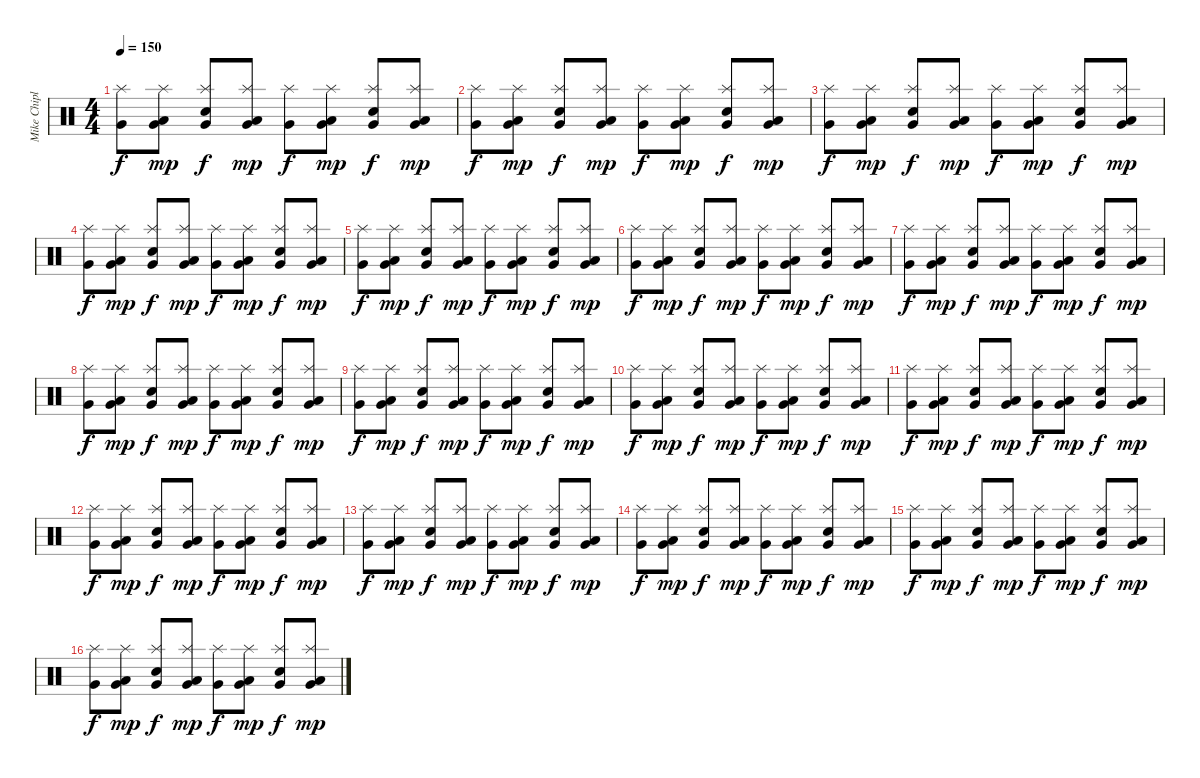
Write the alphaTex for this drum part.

\track ("Mike Chiplin" "Mike Chipl") {instrument percussion}
\staff {score}
\articulation defaults
\ts (4 4)
\tempo 150
\clef neutral
\ks c
("Very Low Tom (hit)" "Splash (hit)").8{dy f} ("Low Floor Tom (hit)" "Very Low Tom (hit)" "Splash (hit)").8{dy mp} ("Very Low Tom (hit)" "Snare (hit) 2" "Splash (hit)").8{dy f} ("Low Floor Tom (hit)" "Very Low Tom (hit)" "Splash (hit)").8{dy mp} ("Very Low Tom (hit)" "Splash (hit)").8{dy f} ("Low Floor Tom (hit)" "Very Low Tom (hit)" "Splash (hit)").8{dy mp} ("Very Low Tom (hit)" "Snare (hit) 2" "Splash (hit)").8{dy f} ("Low Floor Tom (hit)" "Very Low Tom (hit)" "Splash (hit)").8{dy mp} |
("Very Low Tom (hit)" "Splash (hit)").8{dy f} ("Low Floor Tom (hit)" "Very Low Tom (hit)" "Splash (hit)").8{dy mp} ("Very Low Tom (hit)" "Snare (hit) 2" "Splash (hit)").8{dy f} ("Low Floor Tom (hit)" "Very Low Tom (hit)" "Splash (hit)").8{dy mp} ("Very Low Tom (hit)" "Splash (hit)").8{dy f} ("Low Floor Tom (hit)" "Very Low Tom (hit)" "Splash (hit)").8{dy mp} ("Very Low Tom (hit)" "Snare (hit) 2" "Splash (hit)").8{dy f} ("Low Floor Tom (hit)" "Very Low Tom (hit)" "Splash (hit)").8{dy mp} |
("Very Low Tom (hit)" "Splash (hit)").8{dy f} ("Low Floor Tom (hit)" "Very Low Tom (hit)" "Splash (hit)").8{dy mp} ("Very Low Tom (hit)" "Snare (hit) 2" "Splash (hit)").8{dy f} ("Low Floor Tom (hit)" "Very Low Tom (hit)" "Splash (hit)").8{dy mp} ("Very Low Tom (hit)" "Splash (hit)").8{dy f} ("Low Floor Tom (hit)" "Very Low Tom (hit)" "Splash (hit)").8{dy mp} ("Very Low Tom (hit)" "Snare (hit) 2" "Splash (hit)").8{dy f} ("Low Floor Tom (hit)" "Very Low Tom (hit)" "Splash (hit)").8{dy mp} |
("Very Low Tom (hit)" "Splash (hit)").8{dy f} ("Low Floor Tom (hit)" "Very Low Tom (hit)" "Splash (hit)").8{dy mp} ("Very Low Tom (hit)" "Snare (hit) 2" "Splash (hit)").8{dy f} ("Low Floor Tom (hit)" "Very Low Tom (hit)" "Splash (hit)").8{dy mp} ("Very Low Tom (hit)" "Splash (hit)").8{dy f} ("Low Floor Tom (hit)" "Very Low Tom (hit)" "Splash (hit)").8{dy mp} ("Very Low Tom (hit)" "Snare (hit) 2" "Splash (hit)").8{dy f} ("Low Floor Tom (hit)" "Very Low Tom (hit)" "Splash (hit)").8{dy mp} |
("Very Low Tom (hit)" "Splash (hit)").8{dy f} ("Low Floor Tom (hit)" "Very Low Tom (hit)" "Splash (hit)").8{dy mp} ("Very Low Tom (hit)" "Snare (hit) 2" "Splash (hit)").8{dy f} ("Low Floor Tom (hit)" "Very Low Tom (hit)" "Splash (hit)").8{dy mp} ("Very Low Tom (hit)" "Splash (hit)").8{dy f} ("Low Floor Tom (hit)" "Very Low Tom (hit)" "Splash (hit)").8{dy mp} ("Very Low Tom (hit)" "Snare (hit) 2" "Splash (hit)").8{dy f} ("Low Floor Tom (hit)" "Very Low Tom (hit)" "Splash (hit)").8{dy mp} |
("Very Low Tom (hit)" "Splash (hit)").8{dy f} ("Low Floor Tom (hit)" "Very Low Tom (hit)" "Splash (hit)").8{dy mp} ("Very Low Tom (hit)" "Snare (hit) 2" "Splash (hit)").8{dy f} ("Low Floor Tom (hit)" "Very Low Tom (hit)" "Splash (hit)").8{dy mp} ("Very Low Tom (hit)" "Splash (hit)").8{dy f} ("Low Floor Tom (hit)" "Very Low Tom (hit)" "Splash (hit)").8{dy mp} ("Very Low Tom (hit)" "Snare (hit) 2" "Splash (hit)").8{dy f} ("Low Floor Tom (hit)" "Very Low Tom (hit)" "Splash (hit)").8{dy mp} |
("Very Low Tom (hit)" "Splash (hit)").8{dy f} ("Low Floor Tom (hit)" "Very Low Tom (hit)" "Splash (hit)").8{dy mp} ("Very Low Tom (hit)" "Snare (hit) 2" "Splash (hit)").8{dy f} ("Low Floor Tom (hit)" "Very Low Tom (hit)" "Splash (hit)").8{dy mp} ("Very Low Tom (hit)" "Splash (hit)").8{dy f} ("Low Floor Tom (hit)" "Very Low Tom (hit)" "Splash (hit)").8{dy mp} ("Very Low Tom (hit)" "Snare (hit) 2" "Splash (hit)").8{dy f} ("Low Floor Tom (hit)" "Very Low Tom (hit)" "Splash (hit)").8{dy mp} |
("Very Low Tom (hit)" "Splash (hit)").8{dy f} ("Low Floor Tom (hit)" "Very Low Tom (hit)" "Splash (hit)").8{dy mp} ("Very Low Tom (hit)" "Snare (hit) 2" "Splash (hit)").8{dy f} ("Low Floor Tom (hit)" "Very Low Tom (hit)" "Splash (hit)").8{dy mp} ("Very Low Tom (hit)" "Splash (hit)").8{dy f} ("Low Floor Tom (hit)" "Very Low Tom (hit)" "Splash (hit)").8{dy mp} ("Very Low Tom (hit)" "Snare (hit) 2" "Splash (hit)").8{dy f} ("Low Floor Tom (hit)" "Very Low Tom (hit)" "Splash (hit)").8{dy mp} |
("Very Low Tom (hit)" "Splash (hit)").8{dy f} ("Low Floor Tom (hit)" "Very Low Tom (hit)" "Splash (hit)").8{dy mp} ("Very Low Tom (hit)" "Snare (hit) 2" "Splash (hit)").8{dy f} ("Low Floor Tom (hit)" "Very Low Tom (hit)" "Splash (hit)").8{dy mp} ("Very Low Tom (hit)" "Splash (hit)").8{dy f} ("Low Floor Tom (hit)" "Very Low Tom (hit)" "Splash (hit)").8{dy mp} ("Very Low Tom (hit)" "Snare (hit) 2" "Splash (hit)").8{dy f} ("Low Floor Tom (hit)" "Very Low Tom (hit)" "Splash (hit)").8{dy mp} |
("Very Low Tom (hit)" "Splash (hit)").8{dy f} ("Low Floor Tom (hit)" "Very Low Tom (hit)" "Splash (hit)").8{dy mp} ("Very Low Tom (hit)" "Snare (hit) 2" "Splash (hit)").8{dy f} ("Low Floor Tom (hit)" "Very Low Tom (hit)" "Splash (hit)").8{dy mp} ("Very Low Tom (hit)" "Splash (hit)").8{dy f} ("Low Floor Tom (hit)" "Very Low Tom (hit)" "Splash (hit)").8{dy mp} ("Very Low Tom (hit)" "Snare (hit) 2" "Splash (hit)").8{dy f} ("Low Floor Tom (hit)" "Very Low Tom (hit)" "Splash (hit)").8{dy mp} |
("Very Low Tom (hit)" "Splash (hit)").8{dy f} ("Low Floor Tom (hit)" "Very Low Tom (hit)" "Splash (hit)").8{dy mp} ("Very Low Tom (hit)" "Snare (hit) 2" "Splash (hit)").8{dy f} ("Low Floor Tom (hit)" "Very Low Tom (hit)" "Splash (hit)").8{dy mp} ("Very Low Tom (hit)" "Splash (hit)").8{dy f} ("Low Floor Tom (hit)" "Very Low Tom (hit)" "Splash (hit)").8{dy mp} ("Very Low Tom (hit)" "Snare (hit) 2" "Splash (hit)").8{dy f} ("Low Floor Tom (hit)" "Very Low Tom (hit)" "Splash (hit)").8{dy mp} |
("Very Low Tom (hit)" "Splash (hit)").8{dy f} ("Low Floor Tom (hit)" "Very Low Tom (hit)" "Splash (hit)").8{dy mp} ("Very Low Tom (hit)" "Snare (hit) 2" "Splash (hit)").8{dy f} ("Low Floor Tom (hit)" "Very Low Tom (hit)" "Splash (hit)").8{dy mp} ("Very Low Tom (hit)" "Splash (hit)").8{dy f} ("Low Floor Tom (hit)" "Very Low Tom (hit)" "Splash (hit)").8{dy mp} ("Very Low Tom (hit)" "Snare (hit) 2" "Splash (hit)").8{dy f} ("Low Floor Tom (hit)" "Very Low Tom (hit)" "Splash (hit)").8{dy mp} |
("Very Low Tom (hit)" "Splash (hit)").8{dy f} ("Low Floor Tom (hit)" "Very Low Tom (hit)" "Splash (hit)").8{dy mp} ("Very Low Tom (hit)" "Snare (hit) 2" "Splash (hit)").8{dy f} ("Low Floor Tom (hit)" "Very Low Tom (hit)" "Splash (hit)").8{dy mp} ("Very Low Tom (hit)" "Splash (hit)").8{dy f} ("Low Floor Tom (hit)" "Very Low Tom (hit)" "Splash (hit)").8{dy mp} ("Very Low Tom (hit)" "Snare (hit) 2" "Splash (hit)").8{dy f} ("Low Floor Tom (hit)" "Very Low Tom (hit)" "Splash (hit)").8{dy mp} |
("Very Low Tom (hit)" "Splash (hit)").8{dy f} ("Low Floor Tom (hit)" "Very Low Tom (hit)" "Splash (hit)").8{dy mp} ("Very Low Tom (hit)" "Snare (hit) 2" "Splash (hit)").8{dy f} ("Low Floor Tom (hit)" "Very Low Tom (hit)" "Splash (hit)").8{dy mp} ("Very Low Tom (hit)" "Splash (hit)").8{dy f} ("Low Floor Tom (hit)" "Very Low Tom (hit)" "Splash (hit)").8{dy mp} ("Very Low Tom (hit)" "Snare (hit) 2" "Splash (hit)").8{dy f} ("Low Floor Tom (hit)" "Very Low Tom (hit)" "Splash (hit)").8{dy mp} |
("Very Low Tom (hit)" "Splash (hit)").8{dy f} ("Low Floor Tom (hit)" "Very Low Tom (hit)" "Splash (hit)").8{dy mp} ("Very Low Tom (hit)" "Snare (hit) 2" "Splash (hit)").8{dy f} ("Low Floor Tom (hit)" "Very Low Tom (hit)" "Splash (hit)").8{dy mp} ("Very Low Tom (hit)" "Splash (hit)").8{dy f} ("Low Floor Tom (hit)" "Very Low Tom (hit)" "Splash (hit)").8{dy mp} ("Very Low Tom (hit)" "Snare (hit) 2" "Splash (hit)").8{dy f} ("Low Floor Tom (hit)" "Very Low Tom (hit)" "Splash (hit)").8{dy mp} |
("Very Low Tom (hit)" "Splash (hit)").8{dy f} ("Low Floor Tom (hit)" "Very Low Tom (hit)" "Splash (hit)").8{dy mp} ("Very Low Tom (hit)" "Snare (hit) 2" "Splash (hit)").8{dy f} ("Low Floor Tom (hit)" "Very Low Tom (hit)" "Splash (hit)").8{dy mp} ("Very Low Tom (hit)" "Splash (hit)").8{dy f} ("Low Floor Tom (hit)" "Very Low Tom (hit)" "Splash (hit)").8{dy mp} ("Very Low Tom (hit)" "Snare (hit) 2" "Splash (hit)").8{dy f} ("Low Floor Tom (hit)" "Very Low Tom (hit)" "Splash (hit)").8{dy mp}
